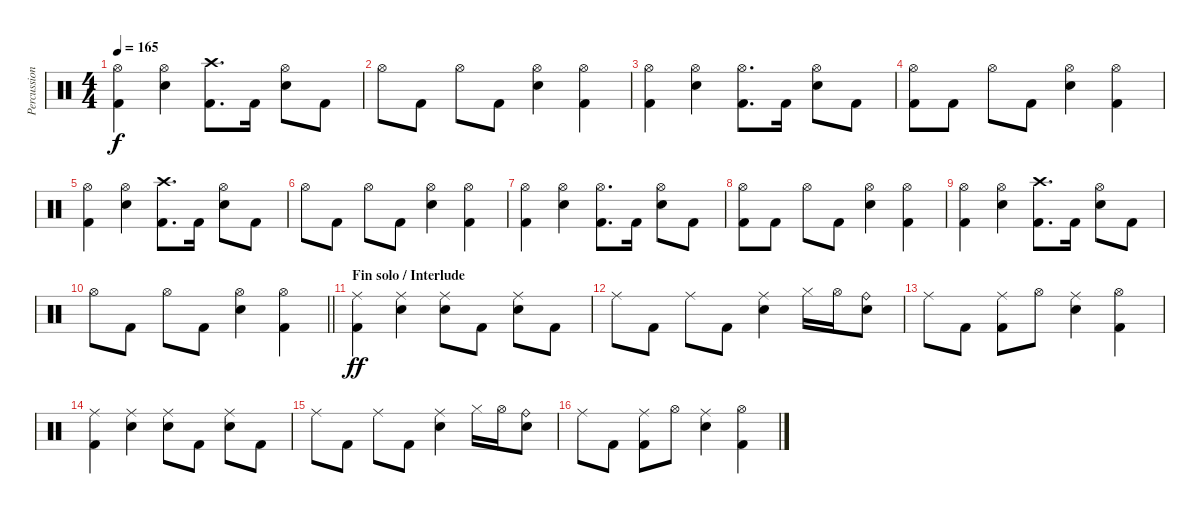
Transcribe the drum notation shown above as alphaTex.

\track ("Percussions" "Percussion") {instrument percussion}
\staff {score}
\articulation defaults
\ts (4 4)
\tempo 165
\clef neutral
\ks c
("Hi-Hat (open)" "Kick (hit) 2").4{dy f} ("Hi-Hat (open)" "Snare (hit) 2").4 ("Crash high (hit)" "Kick (hit) 2").8{d} "Kick (hit) 2".16 ("Hi-Hat (open)" "Snare (hit) 2").8 "Kick (hit) 2".8 |
"Hi-Hat (open)".8 "Kick (hit) 2".8 "Hi-Hat (open)".8 "Kick (hit) 2".8 ("Hi-Hat (open)" "Snare (hit) 2").4 ("Hi-Hat (open)" "Kick (hit) 2").4 |
("Hi-Hat (open)" "Kick (hit) 2").4 ("Hi-Hat (open)" "Snare (hit) 2").4 ("Hi-Hat (open)" "Kick (hit) 2").8{d} "Kick (hit) 2".16 ("Hi-Hat (open)" "Snare (hit) 2").8 "Kick (hit) 2".8 |
("Hi-Hat (open)" "Kick (hit) 2").8 "Kick (hit) 2".8 "Hi-Hat (open)".8 "Kick (hit) 2".8 ("Hi-Hat (open)" "Snare (hit) 2").4 ("Hi-Hat (open)" "Kick (hit) 2").4 |
("Hi-Hat (open)" "Kick (hit) 2").4 ("Hi-Hat (open)" "Snare (hit) 2").4 ("Crash high (hit)" "Kick (hit) 2").8{d} "Kick (hit) 2".16 ("Hi-Hat (open)" "Snare (hit) 2").8 "Kick (hit) 2".8 |
"Hi-Hat (open)".8 "Kick (hit) 2".8 "Hi-Hat (open)".8 "Kick (hit) 2".8 ("Hi-Hat (open)" "Snare (hit) 2").4 ("Hi-Hat (open)" "Kick (hit) 2").4 |
("Hi-Hat (open)" "Kick (hit) 2").4 ("Hi-Hat (open)" "Snare (hit) 2").4 ("Hi-Hat (open)" "Kick (hit) 2").8{d} "Kick (hit) 2".16 ("Hi-Hat (open)" "Snare (hit) 2").8 "Kick (hit) 2".8 |
("Hi-Hat (open)" "Kick (hit) 2").8 "Kick (hit) 2".8 "Hi-Hat (open)".8 "Kick (hit) 2".8 ("Hi-Hat (open)" "Snare (hit) 2").4 ("Hi-Hat (open)" "Kick (hit) 2").4 |
("Hi-Hat (open)" "Kick (hit) 2").4 ("Hi-Hat (open)" "Snare (hit) 2").4 ("Crash high (hit)" "Kick (hit) 2").8{d} "Kick (hit) 2".16 ("Hi-Hat (open)" "Snare (hit) 2").8 "Kick (hit) 2".8 |
\barLineRight lightlight "Hi-Hat (open)".8 "Kick (hit) 2".8 "Hi-Hat (open)".8 "Kick (hit) 2".8
("Hi-Hat (open)" "Snare (hit) 2").4 ("Hi-Hat (open)" "Kick (hit) 2").4 |
\section ("" "Fin solo / Interlude")
("Ride (middle)" "Kick (hit) 2").4{dy ff} ("Ride (middle)" "Snare (hit) 2").4 ("Ride (middle)" "Snare (hit) 2").8 "Kick (hit) 2".8 ("Ride (middle)" "Snare (hit) 2").8 "Kick (hit) 2".8 |
"Ride (middle)".8 "Kick (hit) 2".8 "Ride (middle)".8 "Kick (hit) 2".8 ("Ride (middle)" "Snare (hit) 2").4 "Hi-Hat (closed)".16 "Hi-Hat (open)".16 ("Ride (bell)" "Snare (hit) 2").8 |
"Ride (middle)".8 "Kick (hit) 2".8 ("Ride (middle)" "Kick (hit) 2").8 "Hi-Hat (open)".8 ("Ride (middle)" "Snare (hit) 2").4 ("Hi-Hat (open)" "Kick (hit) 2").4 |
("Ride (middle)" "Kick (hit) 2").4 ("Ride (middle)" "Snare (hit) 2").4 ("Ride (middle)" "Snare (hit) 2").8 "Kick (hit) 2".8 ("Ride (middle)" "Snare (hit) 2").8 "Kick (hit) 2".8 |
"Ride (middle)".8 "Kick (hit) 2".8 "Ride (middle)".8 "Kick (hit) 2".8 ("Ride (middle)" "Snare (hit) 2").4 "Hi-Hat (closed)".16 "Hi-Hat (open)".16 ("Ride (bell)" "Snare (hit) 2").8 |
"Ride (middle)".8 "Kick (hit) 2".8 ("Ride (middle)" "Kick (hit) 2").8 "Hi-Hat (open)".8 ("Ride (middle)" "Snare (hit) 2").4 ("Hi-Hat (open)" "Kick (hit) 2").4
